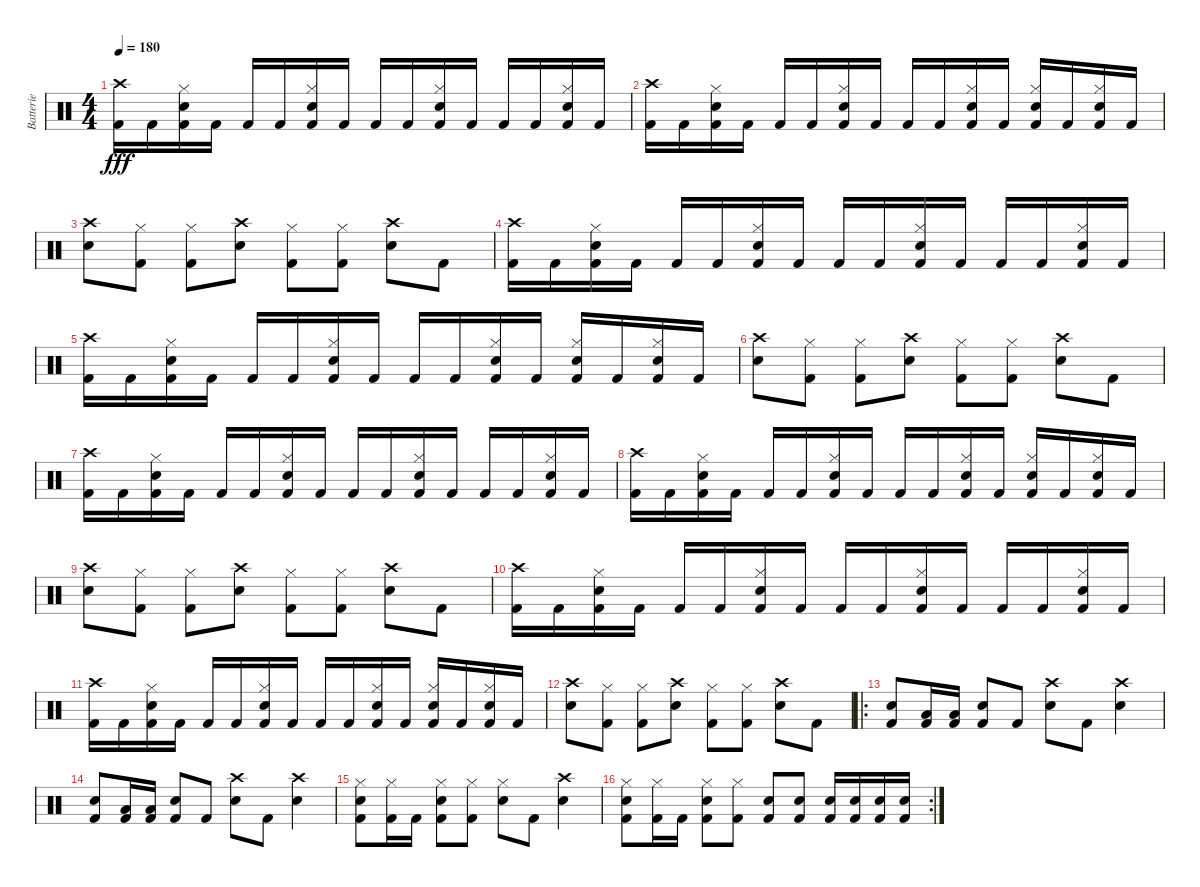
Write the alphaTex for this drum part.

\track ("Batterie" "Batterie") {instrument percussion}
\staff {score}
\articulation defaults
\ts (4 4)
\tempo 180
\clef neutral
\ks c
("Crash high (hit)" "Kick (hit) 2").16{dy fff} "Kick (hit) 2".16 ("Hi-Hat (closed)" "Snare (hit) 2" "Kick (hit) 2").16 "Kick (hit) 2".16 "Kick (hit) 2".16 "Kick (hit) 2".16 ("Hi-Hat (closed)" "Snare (hit) 2" "Kick (hit) 2").16 "Kick (hit) 2".16 "Kick (hit) 2".16 "Kick (hit) 2".16 ("Hi-Hat (closed)" "Snare (hit) 2" "Kick (hit) 2").16 "Kick (hit) 2".16 "Kick (hit) 2".16 "Kick (hit) 2".16 ("Hi-Hat (closed)" "Snare (hit) 2" "Kick (hit) 2").16 "Kick (hit) 2".16 |
("Crash high (hit)" "Kick (hit) 2").16 "Kick (hit) 2".16 ("Hi-Hat (closed)" "Snare (hit) 2" "Kick (hit) 2").16 "Kick (hit) 2".16 "Kick (hit) 2".16 "Kick (hit) 2".16 ("Hi-Hat (closed)" "Snare (hit) 2" "Kick (hit) 2").16 "Kick (hit) 2".16 "Kick (hit) 2".16 "Kick (hit) 2".16 ("Hi-Hat (closed)" "Snare (hit) 2" "Kick (hit) 2").16 "Kick (hit) 2".16 ("Hi-Hat (closed)" "Snare (hit) 2" "Kick (hit) 2").16 "Kick (hit) 2".16 ("Hi-Hat (closed)" "Snare (hit) 2" "Kick (hit) 2").16 "Kick (hit) 2".16 |
("Crash high (hit)" "Snare (hit) 2").8 ("Hi-Hat (closed)" "Kick (hit) 2").8 ("Hi-Hat (closed)" "Kick (hit) 2").8 ("Crash high (hit)" "Snare (hit) 2").8 ("Hi-Hat (closed)" "Kick (hit) 2").8 ("Hi-Hat (closed)" "Kick (hit) 2").8 ("Crash high (hit)" "Snare (hit) 2").8 "Kick (hit) 2".8 |
("Crash high (hit)" "Kick (hit) 2").16 "Kick (hit) 2".16 ("Hi-Hat (closed)" "Snare (hit) 2" "Kick (hit) 2").16 "Kick (hit) 2".16 "Kick (hit) 2".16 "Kick (hit) 2".16 ("Hi-Hat (closed)" "Snare (hit) 2" "Kick (hit) 2").16 "Kick (hit) 2".16 "Kick (hit) 2".16 "Kick (hit) 2".16 ("Hi-Hat (closed)" "Snare (hit) 2" "Kick (hit) 2").16 "Kick (hit) 2".16 "Kick (hit) 2".16 "Kick (hit) 2".16 ("Hi-Hat (closed)" "Snare (hit) 2" "Kick (hit) 2").16 "Kick (hit) 2".16 |
("Crash high (hit)" "Kick (hit) 2").16 "Kick (hit) 2".16 ("Hi-Hat (closed)" "Snare (hit) 2" "Kick (hit) 2").16 "Kick (hit) 2".16 "Kick (hit) 2".16 "Kick (hit) 2".16 ("Hi-Hat (closed)" "Snare (hit) 2" "Kick (hit) 2").16 "Kick (hit) 2".16 "Kick (hit) 2".16 "Kick (hit) 2".16 ("Hi-Hat (closed)" "Snare (hit) 2" "Kick (hit) 2").16 "Kick (hit) 2".16 ("Hi-Hat (closed)" "Snare (hit) 2" "Kick (hit) 2").16 "Kick (hit) 2".16 ("Hi-Hat (closed)" "Snare (hit) 2" "Kick (hit) 2").16 "Kick (hit) 2".16 |
("Crash high (hit)" "Snare (hit) 2").8 ("Hi-Hat (closed)" "Kick (hit) 2").8 ("Hi-Hat (closed)" "Kick (hit) 2").8 ("Crash high (hit)" "Snare (hit) 2").8 ("Hi-Hat (closed)" "Kick (hit) 2").8 ("Hi-Hat (closed)" "Kick (hit) 2").8 ("Crash high (hit)" "Snare (hit) 2").8 "Kick (hit) 2".8 |
("Crash high (hit)" "Kick (hit) 2").16 "Kick (hit) 2".16 ("Hi-Hat (closed)" "Snare (hit) 2" "Kick (hit) 2").16 "Kick (hit) 2".16 "Kick (hit) 2".16 "Kick (hit) 2".16 ("Hi-Hat (closed)" "Snare (hit) 2" "Kick (hit) 2").16 "Kick (hit) 2".16 "Kick (hit) 2".16 "Kick (hit) 2".16 ("Hi-Hat (closed)" "Snare (hit) 2" "Kick (hit) 2").16 "Kick (hit) 2".16 "Kick (hit) 2".16 "Kick (hit) 2".16 ("Hi-Hat (closed)" "Snare (hit) 2" "Kick (hit) 2").16 "Kick (hit) 2".16 |
("Crash high (hit)" "Kick (hit) 2").16 "Kick (hit) 2".16 ("Hi-Hat (closed)" "Snare (hit) 2" "Kick (hit) 2").16 "Kick (hit) 2".16 "Kick (hit) 2".16 "Kick (hit) 2".16 ("Hi-Hat (closed)" "Snare (hit) 2" "Kick (hit) 2").16 "Kick (hit) 2".16 "Kick (hit) 2".16 "Kick (hit) 2".16 ("Hi-Hat (closed)" "Snare (hit) 2" "Kick (hit) 2").16 "Kick (hit) 2".16 ("Hi-Hat (closed)" "Snare (hit) 2" "Kick (hit) 2").16 "Kick (hit) 2".16 ("Hi-Hat (closed)" "Snare (hit) 2" "Kick (hit) 2").16 "Kick (hit) 2".16 |
("Crash high (hit)" "Snare (hit) 2").8 ("Hi-Hat (closed)" "Kick (hit) 2").8 ("Hi-Hat (closed)" "Kick (hit) 2").8 ("Crash high (hit)" "Snare (hit) 2").8 ("Hi-Hat (closed)" "Kick (hit) 2").8 ("Hi-Hat (closed)" "Kick (hit) 2").8 ("Crash high (hit)" "Snare (hit) 2").8 "Kick (hit) 2".8 |
("Crash high (hit)" "Kick (hit) 2").16 "Kick (hit) 2".16 ("Hi-Hat (closed)" "Snare (hit) 2" "Kick (hit) 2").16 "Kick (hit) 2".16 "Kick (hit) 2".16 "Kick (hit) 2".16 ("Hi-Hat (closed)" "Snare (hit) 2" "Kick (hit) 2").16 "Kick (hit) 2".16 "Kick (hit) 2".16 "Kick (hit) 2".16 ("Hi-Hat (closed)" "Snare (hit) 2" "Kick (hit) 2").16 "Kick (hit) 2".16 "Kick (hit) 2".16 "Kick (hit) 2".16 ("Hi-Hat (closed)" "Snare (hit) 2" "Kick (hit) 2").16 "Kick (hit) 2".16 |
("Crash high (hit)" "Kick (hit) 2").16 "Kick (hit) 2".16 ("Hi-Hat (closed)" "Snare (hit) 2" "Kick (hit) 2").16 "Kick (hit) 2".16 "Kick (hit) 2".16 "Kick (hit) 2".16 ("Hi-Hat (closed)" "Snare (hit) 2" "Kick (hit) 2").16 "Kick (hit) 2".16 "Kick (hit) 2".16 "Kick (hit) 2".16 ("Hi-Hat (closed)" "Snare (hit) 2" "Kick (hit) 2").16 "Kick (hit) 2".16 ("Hi-Hat (closed)" "Snare (hit) 2" "Kick (hit) 2").16 "Kick (hit) 2".16 ("Hi-Hat (closed)" "Snare (hit) 2" "Kick (hit) 2").16 "Kick (hit) 2".16 |
("Crash high (hit)" "Snare (hit) 2").8 ("Hi-Hat (closed)" "Kick (hit) 2").8 ("Hi-Hat (closed)" "Kick (hit) 2").8 ("Crash high (hit)" "Snare (hit) 2").8 ("Hi-Hat (closed)" "Kick (hit) 2").8 ("Hi-Hat (closed)" "Kick (hit) 2").8 ("Crash high (hit)" "Snare (hit) 2").8 "Kick (hit) 2".8 |
\ro
("Electric Snare (hit)" "Kick (hit) 2").8 ("Low Tom (hit)" "Kick (hit) 2").16 ("Low Tom (hit)" "Kick (hit) 2").16 ("Electric Snare (hit)" "Kick (hit) 2").8 "Kick (hit) 2".8 ("Crash high (hit)" "Electric Snare (hit)").8 "Kick (hit) 2".8 ("Crash high (hit)" "Electric Snare (hit)").4 |
("Electric Snare (hit)" "Kick (hit) 2").8 ("Low Tom (hit)" "Kick (hit) 2").16 ("Low Tom (hit)" "Kick (hit) 2").16 ("Electric Snare (hit)" "Kick (hit) 2").8 "Kick (hit) 2".8 ("Crash high (hit)" "Electric Snare (hit)").8 "Kick (hit) 2".8 ("Crash high (hit)" "Electric Snare (hit)").4 |
("Hi-Hat (closed)" "Electric Snare (hit)" "Kick (hit) 2").8 ("Hi-Hat (closed)" "Kick (hit) 2").16 "Kick (hit) 2".16 ("Hi-Hat (closed)" "Electric Snare (hit)" "Kick (hit) 2").8 ("Hi-Hat (closed)" "Kick (hit) 2").8 ("Hi-Hat (closed)" "Electric Snare (hit)").8 "Kick (hit) 2".8 ("Crash high (hit)" "Electric Snare (hit)").4 |
\rc 2
("Hi-Hat (closed)" "Electric Snare (hit)" "Kick (hit) 2").8 ("Hi-Hat (closed)" "Kick (hit) 2").16 "Kick (hit) 2".16 ("Hi-Hat (closed)" "Electric Snare (hit)" "Kick (hit) 2").8 ("Hi-Hat (closed)" "Kick (hit) 2").8 ("Electric Snare (hit)" "Kick (hit) 2").8 ("Electric Snare (hit)" "Kick (hit) 2").8 ("Electric Snare (hit)" "Kick (hit) 2").16 ("Electric Snare (hit)" "Kick (hit) 2").16 ("Electric Snare (hit)" "Kick (hit) 2").16 ("Electric Snare (hit)" "Kick (hit) 2").16
